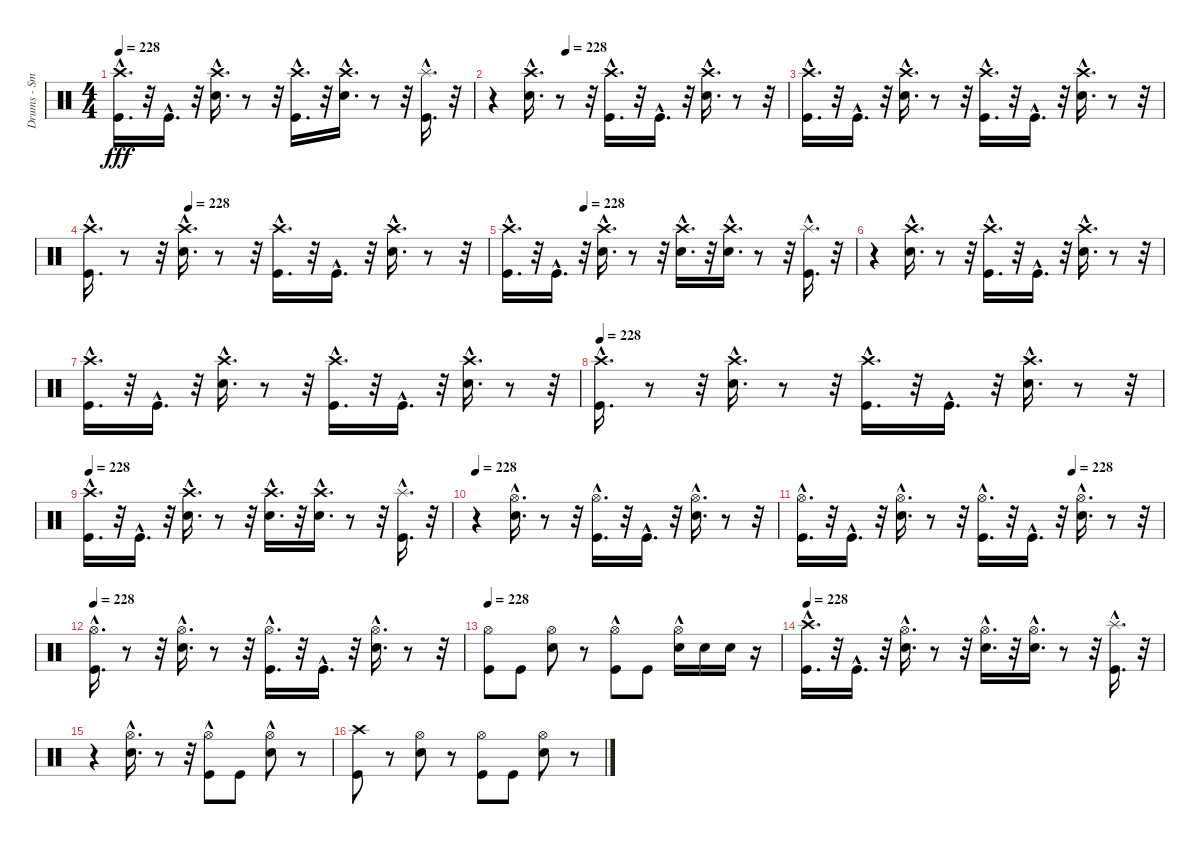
\track ("Drums - Smelly" "Drums - Sm") {instrument percussion}
\staff {score}
\articulation defaults
\ts (4 4)
\tempo 228
\clef neutral
\ks c
("Crash high (hit)"{hac} "Kick (hit)"{hac}).16{d dy fff} r.32 "Kick (hit)"{hac}.16{d} r.32 ("Electric Snare (hit)"{hac} "Crash high (hit)"{hac}).16{d} r.8 r.32 ("Crash high (hit)"{hac} "Kick (hit)"{hac}).16{d} r.32 ("Electric Snare (hit)"{hac} "Crash high (hit)"{hac}).16{d} r.8 r.32 ("Kick (hit)"{hac} "Splash (hit)"{hac}).16{d} r.32 |
\tempo (228 0.25)
r.4 ("Crash high (hit)"{hac} "Electric Snare (hit)"{hac}).16{d} r.8 r.32 ("Crash high (hit)"{hac} "Kick (hit)"{hac}).16{d} r.32 "Kick (hit)"{hac}.16{d} r.32 ("Crash high (hit)"{hac} "Electric Snare (hit)"{hac}).16{d} r.8 r.32 |
("Kick (hit)"{hac} "Crash high (hit)"{hac}).16{d} r.32 "Kick (hit)"{hac}.16{d} r.32 ("Electric Snare (hit)"{hac} "Crash high (hit)"{hac}).16{d} r.8 r.32 ("Crash high (hit)"{hac} "Kick (hit)"{hac}).16{d} r.32 "Kick (hit)"{hac}.16{d} r.32 ("Electric Snare (hit)"{hac} "Crash high (hit)"{hac}).16{d} r.8 r.32 |
\tempo (228 0.25)
("Kick (hit)"{hac} "Crash high (hit)"{hac}).16{d} r.8 r.32 ("Crash high (hit)"{hac} "Electric Snare (hit)"{hac}).16{d} r.8 r.32 ("Crash high (hit)"{hac} "Kick (hit)"{hac}).16{d} r.32 "Kick (hit)"{hac}.16{d} r.32 ("Crash high (hit)"{hac} "Electric Snare (hit)"{hac}).16{d} r.8 r.32 |
\tempo (228 0.21875)
("Kick (hit)"{hac} "Crash high (hit)"{hac}).16{d} r.32 "Kick (hit)"{hac}.16{d} r.32 ("Electric Snare (hit)"{hac} "Crash high (hit)"{hac}).16{d} r.8 r.32 ("Electric Snare (hit)"{hac} "Crash high (hit)"{hac}).16{d} r.32 ("Electric Snare (hit)"{hac} "Crash high (hit)"{hac}).16{d} r.8 r.32 ("Kick (hit)"{hac} "Splash (hit)"{hac}).16{d} r.32 |
r.4 ("Crash high (hit)"{hac} "Electric Snare (hit)"{hac}).16{d} r.8 r.32 ("Crash high (hit)"{hac} "Kick (hit)"{hac}).16{d} r.32 "Kick (hit)"{hac}.16{d} r.32 ("Electric Snare (hit)"{hac} "Crash high (hit)"{hac}).16{d} r.8 r.32 |
("Crash high (hit)"{hac} "Kick (hit)"{hac}).16{d} r.32 "Kick (hit)"{hac}.16{d} r.32 ("Crash high (hit)"{hac} "Electric Snare (hit)"{hac}).16{d} r.8 r.32 ("Crash high (hit)"{hac} "Kick (hit)"{hac}).16{d} r.32 "Kick (hit)"{hac}.16{d} r.32 ("Crash high (hit)"{hac} "Electric Snare (hit)"{hac}).16{d} r.8 r.32 |
\tempo 228
("Kick (hit)"{hac} "Crash high (hit)"{hac}).16{d} r.8 r.32 ("Crash high (hit)"{hac} "Electric Snare (hit)"{hac}).16{d} r.8 r.32 ("Crash high (hit)"{hac} "Kick (hit)"{hac}).16{d} r.32 "Kick (hit)"{hac}.16{d} r.32 ("Crash high (hit)"{hac} "Electric Snare (hit)"{hac}).16{d} r.8 r.32 |
\tempo 228
("Kick (hit)"{hac} "Crash high (hit)"{hac}).16{d} r.32 "Kick (hit)"{hac}.16{d} r.32 ("Electric Snare (hit)"{hac} "Crash high (hit)"{hac}).16{d} r.8 r.32 ("Electric Snare (hit)"{hac} "Crash high (hit)"{hac}).16{d} r.32 ("Crash high (hit)"{hac} "Electric Snare (hit)"{hac}).16{d} r.8 r.32 ("Splash (hit)"{hac} "Kick (hit)"{hac}).16{d} r.32 |
\tempo 228
r.4 ("Hi-Hat (open)"{hac} "Electric Snare (hit)"{hac}).16{d} r.8 r.32 ("Kick (hit)"{hac} "Hi-Hat (open)"{hac}).16{d} r.32 "Kick (hit)"{hac}.16{d} r.32 ("Hi-Hat (open)"{hac} "Electric Snare (hit)"{hac}).16{d} r.8 r.32 |
\tempo (228 0.75)
("Hi-Hat (open)"{hac} "Kick (hit)"{hac}).16{d} r.32 "Kick (hit)"{hac}.16{d} r.32 ("Electric Snare (hit)"{hac} "Hi-Hat (open)"{hac}).16{d} r.8 r.32 ("Kick (hit)"{hac} "Hi-Hat (open)"{hac}).16{d} r.32 "Kick (hit)"{hac}.16{d} r.32 ("Hi-Hat (open)"{hac} "Electric Snare (hit)"{hac}).16{d} r.8 r.32 |
\tempo 228
("Kick (hit)"{hac} "Hi-Hat (open)"{hac}).16{d} r.8 r.32 ("Electric Snare (hit)"{hac} "Hi-Hat (open)"{hac}).16{d} r.8 r.32 ("Hi-Hat (open)"{hac} "Kick (hit)"{hac}).16{d} r.32 "Kick (hit)"{hac}.16{d} r.32 ("Electric Snare (hit)"{hac} "Hi-Hat (open)"{hac}).16{d} r.8 r.32 |
\tempo 228
("Kick (hit)" "Hi-Hat (open)").8 "Kick (hit)".8 ("Hi-Hat (open)" "Electric Snare (hit)").8 r.8 ("Hi-Hat (open)"{hac} "Kick (hit)").8 "Kick (hit)".8 ("Hi-Hat (open)"{hac} "Electric Snare (hit)").16 "Electric Snare (hit)".16 "Electric Snare (hit)".16 r.16 |
\tempo 228
("Kick (hit)"{hac} "Crash high (hit)"{hac}).16{d} r.32 "Kick (hit)"{hac}.16{d} r.32 ("Electric Snare (hit)"{hac} "Hi-Hat (open)"{hac}).16{d} r.8 r.32 ("Electric Snare (hit)"{hac} "Hi-Hat (open)"{hac}).16{d} r.32 ("Hi-Hat (open)"{hac} "Electric Snare (hit)"{hac}).16{d} r.8 r.32 ("Splash (hit)"{hac} "Kick (hit)"{hac}).16{d} r.32 |
r.4 ("Electric Snare (hit)"{hac} "Hi-Hat (open)"{hac}).16{d} r.8 r.32 ("Kick (hit)" "Hi-Hat (open)"{hac}).8 "Kick (hit)".8 ("Electric Snare (hit)" "Hi-Hat (open)"{hac}).8 r.8 |
("Crash high (hit)" "Kick (hit)").8 r.8 ("Electric Snare (hit)" "Hi-Hat (open)").8 r.8 ("Hi-Hat (open)" "Kick (hit)").8 "Kick (hit)".8 ("Hi-Hat (open)" "Electric Snare (hit)").8 r.8
